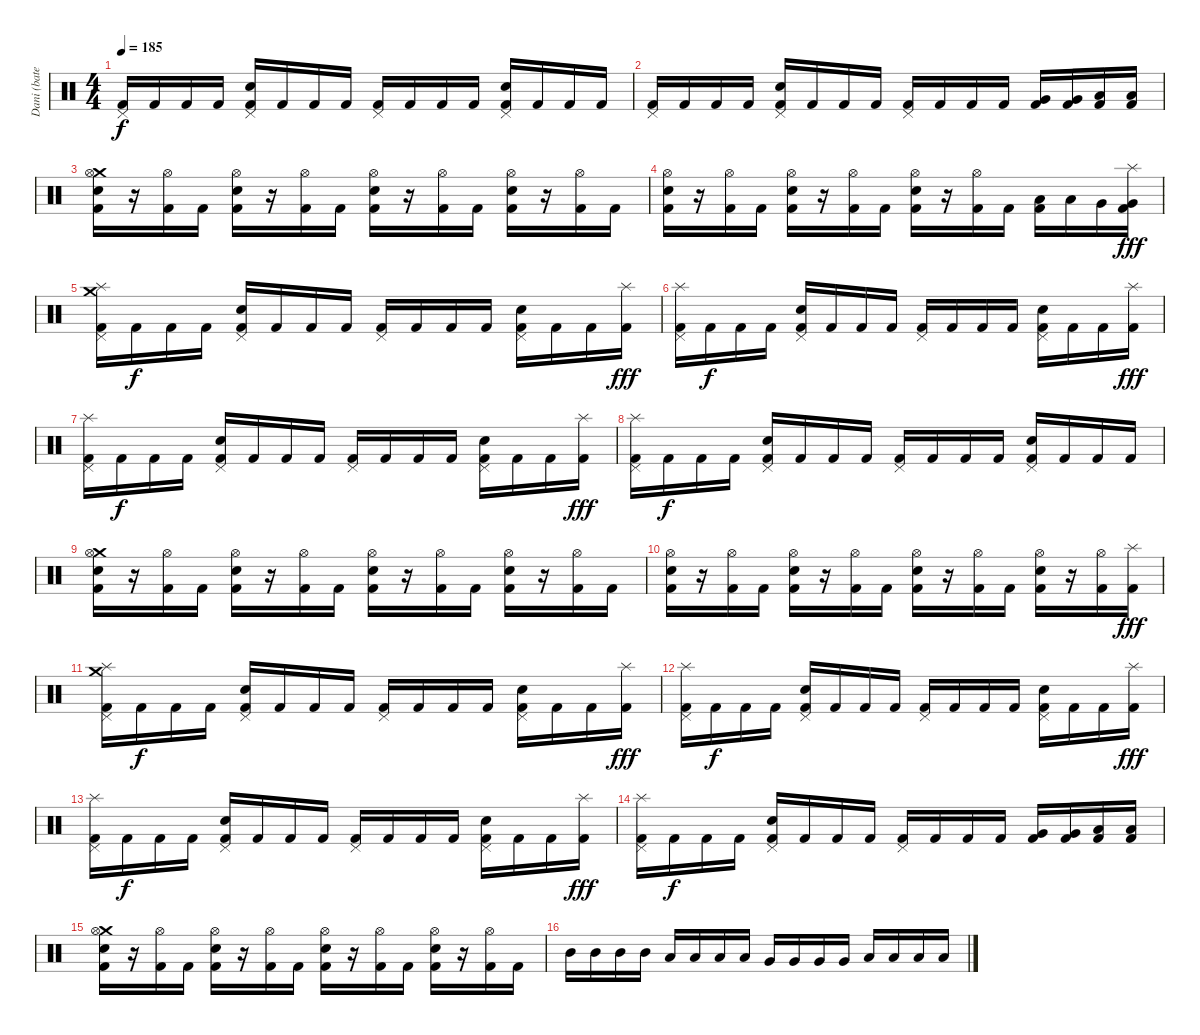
\track ("Dani (batería)" "Dani (bate") {instrument percussion}
\staff {score}
\articulation defaults
\ts (4 4)
\tempo 185
\clef neutral
\ks c
("Pedal Hi-Hat (hit)" "Kick (hit) 2").16{dy f} "Kick (hit) 2".16 "Kick (hit) 2".16 "Kick (hit) 2".16 ("Pedal Hi-Hat (hit)" "Snare (hit) 2" "Kick (hit) 2").16 "Kick (hit) 2".16 "Kick (hit) 2".16 "Kick (hit) 2".16 ("Pedal Hi-Hat (hit)" "Kick (hit) 2").16 "Kick (hit) 2".16 "Kick (hit) 2".16 "Kick (hit) 2".16 ("Pedal Hi-Hat (hit)" "Snare (hit) 2" "Kick (hit) 2").16 "Kick (hit) 2".16 "Kick (hit) 2".16 "Kick (hit) 2".16 |
("Pedal Hi-Hat (hit)" "Kick (hit) 2").16 "Kick (hit) 2".16 "Kick (hit) 2".16 "Kick (hit) 2".16 ("Pedal Hi-Hat (hit)" "Snare (hit) 2" "Kick (hit) 2").16 "Kick (hit) 2".16 "Kick (hit) 2".16 "Kick (hit) 2".16 ("Pedal Hi-Hat (hit)" "Kick (hit) 2").16 "Kick (hit) 2".16 "Kick (hit) 2".16 "Kick (hit) 2".16 ("Very Low Tom (hit)" "Kick (hit) 2").16 ("Very Low Tom (hit)" "Kick (hit) 2").16 ("Low Floor Tom (hit)" "Kick (hit) 2").16 ("Low Floor Tom (hit)" "Kick (hit) 2").16 |
("Crash medium (hit)" "Hi-Hat (open)" "Snare (hit) 2" "Kick (hit) 2").16 r.16 ("Hi-Hat (open)" "Kick (hit) 2").16 "Kick (hit) 2".16 ("Hi-Hat (open)" "Snare (hit) 2" "Kick (hit) 2").16 r.16 ("Hi-Hat (open)" "Kick (hit) 2").16 "Kick (hit) 2".16 ("Hi-Hat (open)" "Snare (hit) 2" "Kick (hit) 2").16 r.16 ("Hi-Hat (open)" "Kick (hit) 2").16 "Kick (hit) 2".16 ("Hi-Hat (open)" "Snare (hit) 2" "Kick (hit) 2").16 r.16 ("Hi-Hat (open)" "Kick (hit) 2").16 "Kick (hit) 2".16 |
("Hi-Hat (open)" "Snare (hit) 2" "Kick (hit) 2").16 r.16 ("Hi-Hat (open)" "Kick (hit) 2").16 "Kick (hit) 2".16 ("Hi-Hat (open)" "Snare (hit) 2" "Kick (hit) 2").16 r.16 ("Hi-Hat (open)" "Kick (hit) 2").16 "Kick (hit) 2".16 ("Hi-Hat (open)" "Snare (hit) 2" "Kick (hit) 2").16 r.16 ("Hi-Hat (open)" "Kick (hit) 2").16 "Kick (hit) 2".16 ("Low Tom (hit)" "Kick (hit) 2").16 "Low Tom (hit)".16 "Very Low Tom (hit)".16 ("Splash (hit)" "Very Low Tom (hit)" "Kick (hit) 2").16{dy fff} |
("Splash (hit)" "Crash medium (hit)" "Pedal Hi-Hat (hit)" "Kick (hit) 2").16 "Kick (hit) 2".16{dy f} "Kick (hit) 2".16 "Kick (hit) 2".16 ("Pedal Hi-Hat (hit)" "Snare (hit) 2" "Kick (hit) 2").16 "Kick (hit) 2".16 "Kick (hit) 2".16 "Kick (hit) 2".16 ("Pedal Hi-Hat (hit)" "Kick (hit) 2").16 "Kick (hit) 2".16 "Kick (hit) 2".16 "Kick (hit) 2".16 ("Pedal Hi-Hat (hit)" "Snare (hit) 2" "Kick (hit) 2").16 "Kick (hit) 2".16 "Kick (hit) 2".16 ("Splash (hit)" "Kick (hit) 2").16{dy fff} |
("Splash (hit)" "Pedal Hi-Hat (hit)" "Kick (hit) 2").16 "Kick (hit) 2".16{dy f} "Kick (hit) 2".16 "Kick (hit) 2".16 ("Pedal Hi-Hat (hit)" "Snare (hit) 2" "Kick (hit) 2").16 "Kick (hit) 2".16 "Kick (hit) 2".16 "Kick (hit) 2".16 ("Pedal Hi-Hat (hit)" "Kick (hit) 2").16 "Kick (hit) 2".16 "Kick (hit) 2".16 "Kick (hit) 2".16 ("Pedal Hi-Hat (hit)" "Snare (hit) 2" "Kick (hit) 2").16 "Kick (hit) 2".16 "Kick (hit) 2".16 ("Splash (hit)" "Kick (hit) 2").16{dy fff} |
("Splash (hit)" "Pedal Hi-Hat (hit)" "Kick (hit) 2").16 "Kick (hit) 2".16{dy f} "Kick (hit) 2".16 "Kick (hit) 2".16 ("Pedal Hi-Hat (hit)" "Snare (hit) 2" "Kick (hit) 2").16 "Kick (hit) 2".16 "Kick (hit) 2".16 "Kick (hit) 2".16 ("Pedal Hi-Hat (hit)" "Kick (hit) 2").16 "Kick (hit) 2".16 "Kick (hit) 2".16 "Kick (hit) 2".16 ("Pedal Hi-Hat (hit)" "Snare (hit) 2" "Kick (hit) 2").16 "Kick (hit) 2".16 "Kick (hit) 2".16 ("Splash (hit)" "Kick (hit) 2").16{dy fff} |
("Splash (hit)" "Pedal Hi-Hat (hit)" "Kick (hit) 2").16 "Kick (hit) 2".16{dy f} "Kick (hit) 2".16 "Kick (hit) 2".16 ("Pedal Hi-Hat (hit)" "Snare (hit) 2" "Kick (hit) 2").16 "Kick (hit) 2".16 "Kick (hit) 2".16 "Kick (hit) 2".16 ("Pedal Hi-Hat (hit)" "Kick (hit) 2").16 "Kick (hit) 2".16 "Kick (hit) 2".16 "Kick (hit) 2".16 ("Pedal Hi-Hat (hit)" "Snare (hit) 2" "Kick (hit) 2").16 "Kick (hit) 2".16 "Kick (hit) 2".16 "Kick (hit) 2".16 |
("Crash medium (hit)" "Hi-Hat (open)" "Snare (hit) 2" "Kick (hit) 2").16 r.16 ("Hi-Hat (open)" "Kick (hit) 2").16 "Kick (hit) 2".16 ("Hi-Hat (open)" "Snare (hit) 2" "Kick (hit) 2").16 r.16 ("Hi-Hat (open)" "Kick (hit) 2").16 "Kick (hit) 2".16 ("Hi-Hat (open)" "Snare (hit) 2" "Kick (hit) 2").16 r.16 ("Hi-Hat (open)" "Kick (hit) 2").16 "Kick (hit) 2".16 ("Hi-Hat (open)" "Snare (hit) 2" "Kick (hit) 2").16 r.16 ("Hi-Hat (open)" "Kick (hit) 2").16 "Kick (hit) 2".16 |
("Hi-Hat (open)" "Snare (hit) 2" "Kick (hit) 2").16 r.16 ("Hi-Hat (open)" "Kick (hit) 2").16 "Kick (hit) 2".16 ("Hi-Hat (open)" "Snare (hit) 2" "Kick (hit) 2").16 r.16 ("Hi-Hat (open)" "Kick (hit) 2").16 "Kick (hit) 2".16 ("Hi-Hat (open)" "Snare (hit) 2" "Kick (hit) 2").16 r.16 ("Hi-Hat (open)" "Kick (hit) 2").16 "Kick (hit) 2".16 ("Hi-Hat (open)" "Snare (hit) 2" "Kick (hit) 2").16 r.16 ("Hi-Hat (open)" "Kick (hit) 2").16 ("Splash (hit)" "Kick (hit) 2").16{dy fff} |
("Splash (hit)" "Crash medium (hit)" "Pedal Hi-Hat (hit)" "Kick (hit) 2").16 "Kick (hit) 2".16{dy f} "Kick (hit) 2".16 "Kick (hit) 2".16 ("Pedal Hi-Hat (hit)" "Snare (hit) 2" "Kick (hit) 2").16 "Kick (hit) 2".16 "Kick (hit) 2".16 "Kick (hit) 2".16 ("Pedal Hi-Hat (hit)" "Kick (hit) 2").16 "Kick (hit) 2".16 "Kick (hit) 2".16 "Kick (hit) 2".16 ("Pedal Hi-Hat (hit)" "Snare (hit) 2" "Kick (hit) 2").16 "Kick (hit) 2".16 "Kick (hit) 2".16 ("Splash (hit)" "Kick (hit) 2").16{dy fff} |
("Splash (hit)" "Pedal Hi-Hat (hit)" "Kick (hit) 2").16 "Kick (hit) 2".16{dy f} "Kick (hit) 2".16 "Kick (hit) 2".16 ("Pedal Hi-Hat (hit)" "Snare (hit) 2" "Kick (hit) 2").16 "Kick (hit) 2".16 "Kick (hit) 2".16 "Kick (hit) 2".16 ("Pedal Hi-Hat (hit)" "Kick (hit) 2").16 "Kick (hit) 2".16 "Kick (hit) 2".16 "Kick (hit) 2".16 ("Pedal Hi-Hat (hit)" "Snare (hit) 2" "Kick (hit) 2").16 "Kick (hit) 2".16 "Kick (hit) 2".16 ("Splash (hit)" "Kick (hit) 2").16{dy fff} |
("Splash (hit)" "Pedal Hi-Hat (hit)" "Kick (hit) 2").16 "Kick (hit) 2".16{dy f} "Kick (hit) 2".16 "Kick (hit) 2".16 ("Pedal Hi-Hat (hit)" "Snare (hit) 2" "Kick (hit) 2").16 "Kick (hit) 2".16 "Kick (hit) 2".16 "Kick (hit) 2".16 ("Pedal Hi-Hat (hit)" "Kick (hit) 2").16 "Kick (hit) 2".16 "Kick (hit) 2".16 "Kick (hit) 2".16 ("Pedal Hi-Hat (hit)" "Snare (hit) 2" "Kick (hit) 2").16 "Kick (hit) 2".16 "Kick (hit) 2".16 ("Splash (hit)" "Kick (hit) 2").16{dy fff} |
("Splash (hit)" "Pedal Hi-Hat (hit)" "Kick (hit) 2").16 "Kick (hit) 2".16{dy f} "Kick (hit) 2".16 "Kick (hit) 2".16 ("Pedal Hi-Hat (hit)" "Snare (hit) 2" "Kick (hit) 2").16 "Kick (hit) 2".16 "Kick (hit) 2".16 "Kick (hit) 2".16 ("Pedal Hi-Hat (hit)" "Kick (hit) 2").16 "Kick (hit) 2".16 "Kick (hit) 2".16 "Kick (hit) 2".16 ("Very Low Tom (hit)" "Kick (hit) 2").16 ("Very Low Tom (hit)" "Kick (hit) 2").16 ("Low Floor Tom (hit)" "Kick (hit) 2").16 ("Low Floor Tom (hit)" "Kick (hit) 2").16 |
("Crash medium (hit)" "Hi-Hat (open)" "Snare (hit) 2" "Kick (hit) 2").16 r.16 ("Hi-Hat (open)" "Kick (hit) 2").16 "Kick (hit) 2".16 ("Hi-Hat (open)" "Snare (hit) 2" "Kick (hit) 2").16 r.16 ("Hi-Hat (open)" "Kick (hit) 2").16 "Kick (hit) 2".16 ("Hi-Hat (open)" "Snare (hit) 2" "Kick (hit) 2").16 r.16 ("Hi-Hat (open)" "Kick (hit) 2").16 "Kick (hit) 2".16 ("Hi-Hat (open)" "Snare (hit) 2" "Kick (hit) 2").16 r.16 ("Hi-Hat (open)" "Kick (hit) 2").16 "Kick (hit) 2".16 |
"Mid Tom (hit)".16 "Mid Tom (hit)".16 "Mid Tom (hit)".16 "Mid Tom (hit)".16 "Low Tom (hit)".16 "Low Tom (hit)".16 "Low Tom (hit)".16 "Low Tom (hit)".16 "Very Low Tom (hit)".16 "Very Low Tom (hit)".16 "Very Low Tom (hit)".16 "Very Low Tom (hit)".16 "Low Floor Tom (hit)".16 "Low Floor Tom (hit)".16 "Low Floor Tom (hit)".16 "Low Floor Tom (hit)".16
